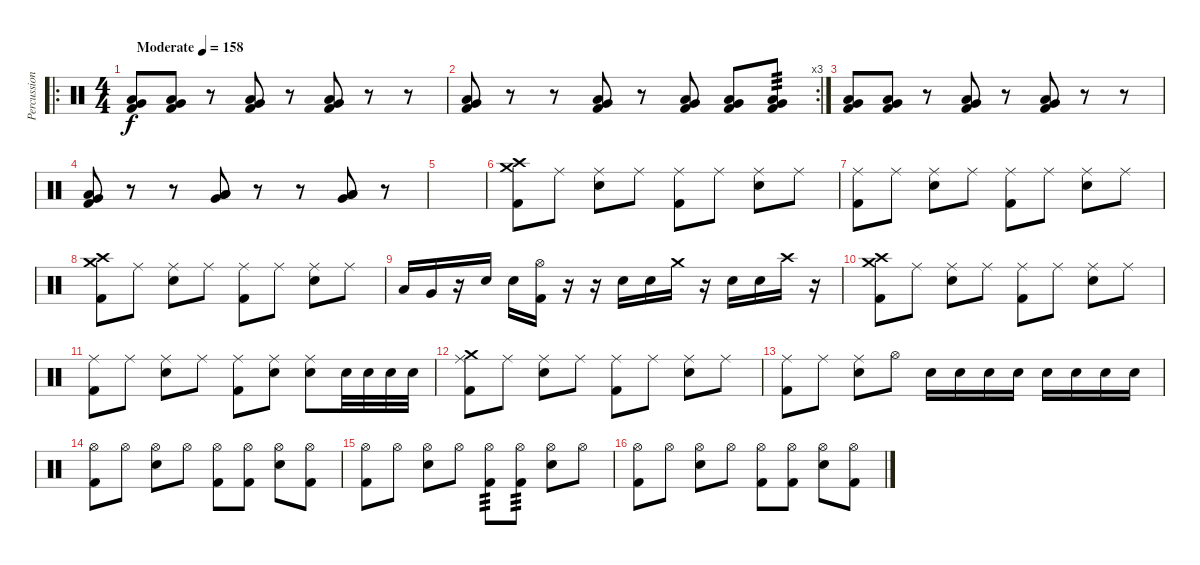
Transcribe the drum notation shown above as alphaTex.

\track ("Percussion" "Percussion") {instrument percussion}
\staff {score}
\articulation defaults
\ro
\ts (4 4)
\tempo (158 "Moderate")
\clef neutral
\ks c
("Low Tom (hit)" "Very Low Tom (hit)" "Kick (hit) 2").8{dy f} ("Low Tom (hit)" "Very Low Tom (hit)" "Kick (hit) 2").8 r.8 ("Low Tom (hit)" "Very Low Tom (hit)" "Kick (hit) 2").8 r.8 ("Low Tom (hit)" "Very Low Tom (hit)" "Kick (hit) 2").8 r.8 r.8 |
\rc 3
("Low Tom (hit)" "Very Low Tom (hit)" "Kick (hit) 2").8 r.8 r.8 ("Low Tom (hit)" "Very Low Tom (hit)" "Kick (hit) 2").8 r.8 ("Low Tom (hit)" "Very Low Tom (hit)" "Kick (hit) 2").8 ("Low Tom (hit)" "Very Low Tom (hit)" "Kick (hit) 2").8 ("Low Tom (hit)" "Very Low Tom (hit)" "Kick (hit) 2").8{tp 3} |
("Low Tom (hit)" "Very Low Tom (hit)" "Kick (hit) 2").8 ("Low Tom (hit)" "Very Low Tom (hit)" "Kick (hit) 2").8 r.8 ("Low Tom (hit)" "Very Low Tom (hit)" "Kick (hit) 2").8 r.8 ("Low Tom (hit)" "Very Low Tom (hit)" "Kick (hit) 2").8 r.8 r.8 |
("Low Tom (hit)" "Very Low Tom (hit)" "Kick (hit) 2").8 r.8 r.8 ("Low Tom (hit)" "Very Low Tom (hit)" "Low Tom (hit)").8 r.8 r.8 ("Low Tom (hit)" "Very Low Tom (hit)" "Low Tom (hit)").8 r.8 |
|
("Crash high (hit)" "Crash medium (hit)" "Kick (hit) 2").8 "Ride (middle)".8 ("Ride (middle)" "Electric Snare (hit)").8 "Ride (middle)".8 ("Ride (middle)" "Kick (hit) 2").8 "Ride (middle)".8 ("Ride (middle)" "Electric Snare (hit)").8 "Ride (middle)".8 |
("Ride (middle)" "Kick (hit) 2").8 "Ride (middle)".8 ("Ride (middle)" "Electric Snare (hit)").8 "Ride (middle)".8 ("Ride (middle)" "Kick (hit) 2").8 "Ride (middle)".8 ("Ride (middle)" "Electric Snare (hit)").8 "Ride (middle)".8 |
("Crash high (hit)" "Crash medium (hit)" "Kick (hit) 2").8 "Ride (middle)".8 ("Ride (middle)" "Electric Snare (hit)").8 "Ride (middle)".8 ("Ride (middle)" "Kick (hit) 2").8 "Ride (middle)".8 ("Ride (middle)" "Electric Snare (hit)").8 "Ride (middle)".8 |
"Low Tom (hit)".16 "Very Low Tom (hit)".16 r.16 "Electric Snare (hit)".16 "Electric Snare (hit)".16 ("Hi-Hat (open)" "Kick (hit) 2").16 r.16 r.16 "Electric Snare (hit)".16 "Electric Snare (hit)".16 "Crash medium (hit)".16 r.16 "Electric Snare (hit)".16 "Electric Snare (hit)".16 "Crash high (hit)".16 r.16 |
("Crash high (hit)" "Crash medium (hit)" "Kick (hit) 2").8 "Ride (middle)".8 ("Ride (middle)" "Electric Snare (hit)").8 "Ride (middle)".8 ("Ride (middle)" "Kick (hit) 2").8 "Ride (middle)".8 ("Ride (middle)" "Electric Snare (hit)").8 "Ride (middle)".8 |
("Ride (middle)" "Kick (hit) 2").8 "Ride (middle)".8 ("Ride (middle)" "Electric Snare (hit)").8 "Ride (middle)".8 ("Ride (middle)" "Kick (hit) 2").8 ("Ride (middle)" "Electric Snare (hit)").8 ("Ride (middle)" "Electric Snare (hit)").8 "Electric Snare (hit)".32 "Electric Snare (hit)".32 "Electric Snare (hit)".32 "Electric Snare (hit)".32 |
("Ride (middle)" "Crash medium (hit)" "Kick (hit) 2").8 "Ride (middle)".8 ("Ride (middle)" "Electric Snare (hit)").8 "Ride (middle)".8 ("Ride (middle)" "Kick (hit) 2").8 "Ride (middle)".8 ("Ride (middle)" "Electric Snare (hit)").8 "Ride (middle)".8 |
("Ride (middle)" "Kick (hit) 2").8 "Ride (middle)".8 ("Ride (middle)" "Electric Snare (hit)").8 "Hi-Hat (open)".8 "Electric Snare (hit)".16 "Electric Snare (hit)".16 "Electric Snare (hit)".16 "Electric Snare (hit)".16 "Electric Snare (hit)".16 "Electric Snare (hit)".16 "Electric Snare (hit)".16 "Electric Snare (hit)".16 |
("Hi-Hat (open)" "Kick (hit) 2").8 "Hi-Hat (open)".8 ("Hi-Hat (open)" "Electric Snare (hit)").8 "Hi-Hat (open)".8 ("Hi-Hat (open)" "Kick (hit) 2").8 ("Hi-Hat (open)" "Kick (hit) 2").8 ("Hi-Hat (open)" "Electric Snare (hit)").8 ("Hi-Hat (open)" "Kick (hit) 2").8 |
("Hi-Hat (open)" "Kick (hit) 2").8 "Hi-Hat (open)".8 ("Hi-Hat (open)" "Electric Snare (hit)").8 "Hi-Hat (open)".8 ("Hi-Hat (open)" "Kick (hit) 2").8{tp 3} ("Hi-Hat (open)" "Kick (hit) 2").8{tp 3} ("Hi-Hat (open)" "Electric Snare (hit)").8 "Hi-Hat (open)".8 |
("Hi-Hat (open)" "Kick (hit) 2").8 "Hi-Hat (open)".8 ("Hi-Hat (open)" "Electric Snare (hit)").8 "Hi-Hat (open)".8 ("Hi-Hat (open)" "Kick (hit) 2").8 ("Hi-Hat (open)" "Kick (hit) 2").8 ("Hi-Hat (open)" "Electric Snare (hit)").8 ("Hi-Hat (open)" "Kick (hit) 2").8
